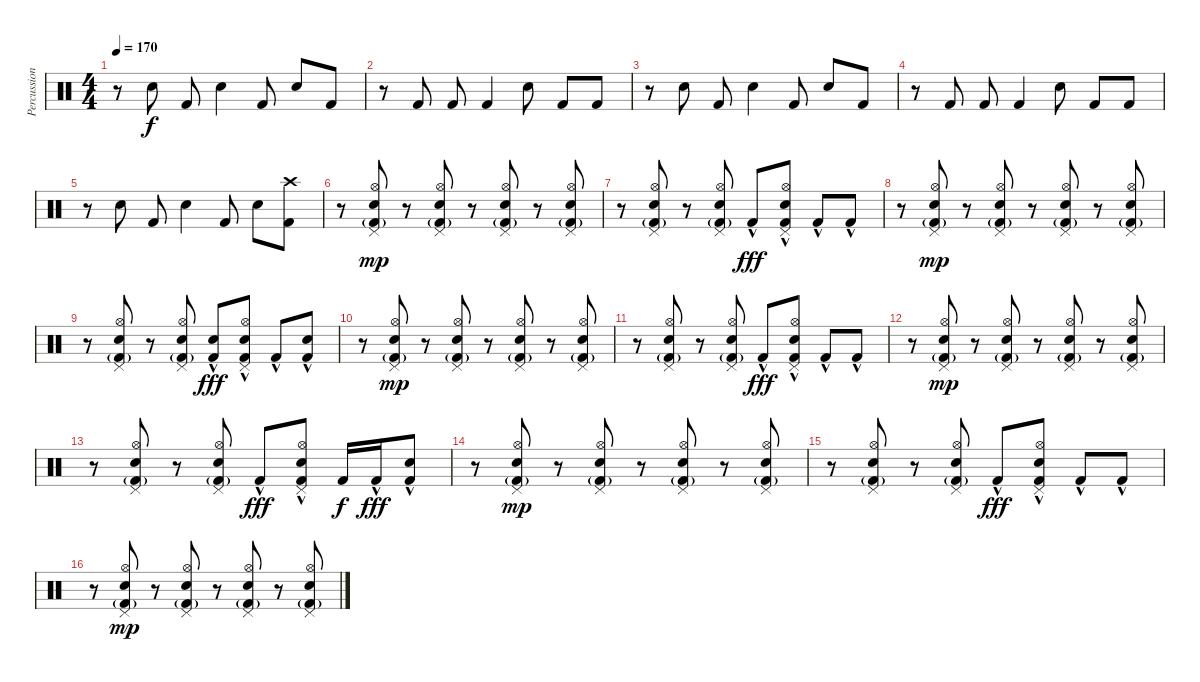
\track ("Percussions" "Percussion") {instrument percussion}
\staff {score}
\articulation defaults
\ts (4 4)
\tempo 170
\clef neutral
\ks c
r.8{dy f} "Electric Snare (hit)".8 "Kick (hit) 2".8 "Electric Snare (hit)".4 "Kick (hit) 2".8 "Electric Snare (hit)".8 "Kick (hit) 2".8 |
r.8 "Kick (hit) 2".8 "Kick (hit) 2".8 "Kick (hit) 2".4 "Electric Snare (hit)".8 "Kick (hit) 2".8 "Kick (hit) 2".8 |
r.8 "Electric Snare (hit)".8 "Kick (hit) 2".8 "Electric Snare (hit)".4 "Kick (hit) 2".8 "Electric Snare (hit)".8 "Kick (hit) 2".8 |
r.8 "Kick (hit) 2".8 "Kick (hit) 2".8 "Kick (hit) 2".4 "Electric Snare (hit)".8 "Kick (hit) 2".8 "Kick (hit) 2".8 |
r.8 "Electric Snare (hit)".8 "Kick (hit) 2".8 "Electric Snare (hit)".4 "Kick (hit) 2".8 "Electric Snare (hit)".8 ("Crash high (hit)" "Kick (hit) 2").8{volume 8} |
r.8 ("Hi-Hat (open)" "Electric Snare (hit)" "Pedal Hi-Hat (hit)" "Kick (hit) 2"{g}).8{dy mp} r.8 ("Hi-Hat (open)" "Electric Snare (hit)" "Pedal Hi-Hat (hit)" "Kick (hit) 2"{g}).8 r.8 ("Hi-Hat (open)" "Electric Snare (hit)" "Pedal Hi-Hat (hit)" "Kick (hit) 2"{g}).8 r.8 ("Hi-Hat (open)" "Electric Snare (hit)" "Pedal Hi-Hat (hit)" "Kick (hit) 2"{g}).8 |
r.8 ("Hi-Hat (open)" "Electric Snare (hit)" "Pedal Hi-Hat (hit)" "Kick (hit) 2"{g}).8 r.8 ("Hi-Hat (open)" "Electric Snare (hit)" "Pedal Hi-Hat (hit)" "Kick (hit) 2"{g}).8 "Kick (hit) 2"{hac}.8{dy fff} ("Hi-Hat (open)" "Electric Snare (hit)" "Pedal Hi-Hat (hit)" "Kick (hit) 2"{hac}).8 "Kick (hit) 2"{hac}.8 "Kick (hit) 2"{hac}.8 |
r.8 ("Hi-Hat (open)" "Electric Snare (hit)" "Pedal Hi-Hat (hit)" "Kick (hit) 2"{g}).8{dy mp} r.8 ("Hi-Hat (open)" "Electric Snare (hit)" "Pedal Hi-Hat (hit)" "Kick (hit) 2"{g}).8 r.8 ("Hi-Hat (open)" "Electric Snare (hit)" "Pedal Hi-Hat (hit)" "Kick (hit) 2"{g}).8 r.8 ("Hi-Hat (open)" "Electric Snare (hit)" "Pedal Hi-Hat (hit)" "Kick (hit) 2"{g}).8 |
r.8 ("Hi-Hat (open)" "Electric Snare (hit)" "Pedal Hi-Hat (hit)" "Kick (hit) 2"{g}).8 r.8 ("Hi-Hat (open)" "Electric Snare (hit)" "Pedal Hi-Hat (hit)" "Kick (hit) 2"{g}).8 ("Electric Snare (hit)" "Kick (hit) 2"{hac}).8{dy fff} ("Hi-Hat (open)" "Electric Snare (hit)"{hac} "Pedal Hi-Hat (hit)" "Kick (hit) 2"{hac}).8 "Kick (hit) 2"{hac}.8 ("Electric Snare (hit)"{hac} "Kick (hit) 2"{hac}).8 |
r.8 ("Hi-Hat (open)" "Electric Snare (hit)" "Pedal Hi-Hat (hit)" "Kick (hit) 2"{g}).8{dy mp} r.8 ("Hi-Hat (open)" "Electric Snare (hit)" "Pedal Hi-Hat (hit)" "Kick (hit) 2"{g}).8 r.8 ("Hi-Hat (open)" "Electric Snare (hit)" "Pedal Hi-Hat (hit)" "Kick (hit) 2"{g}).8 r.8 ("Hi-Hat (open)" "Electric Snare (hit)" "Pedal Hi-Hat (hit)" "Kick (hit) 2"{g}).8 |
r.8 ("Hi-Hat (open)" "Electric Snare (hit)" "Pedal Hi-Hat (hit)" "Kick (hit) 2"{g}).8 r.8 ("Hi-Hat (open)" "Electric Snare (hit)" "Pedal Hi-Hat (hit)" "Kick (hit) 2"{g}).8 "Kick (hit) 2"{hac}.8{dy fff} ("Hi-Hat (open)" "Electric Snare (hit)" "Pedal Hi-Hat (hit)" "Kick (hit) 2"{hac}).8 "Kick (hit) 2"{hac}.8 "Kick (hit) 2"{hac}.8 |
r.8 ("Hi-Hat (open)" "Electric Snare (hit)" "Pedal Hi-Hat (hit)" "Kick (hit) 2"{g}).8{dy mp} r.8 ("Hi-Hat (open)" "Electric Snare (hit)" "Pedal Hi-Hat (hit)" "Kick (hit) 2"{g}).8 r.8 ("Hi-Hat (open)" "Electric Snare (hit)" "Pedal Hi-Hat (hit)" "Kick (hit) 2"{g}).8 r.8 ("Hi-Hat (open)" "Electric Snare (hit)" "Pedal Hi-Hat (hit)" "Kick (hit) 2"{g}).8 |
r.8 ("Hi-Hat (open)" "Electric Snare (hit)" "Pedal Hi-Hat (hit)" "Kick (hit) 2"{g}).8 r.8 ("Hi-Hat (open)" "Electric Snare (hit)" "Pedal Hi-Hat (hit)" "Kick (hit) 2"{g}).8 "Kick (hit) 2"{hac}.8{dy fff} ("Hi-Hat (open)" "Electric Snare (hit)"{hac} "Pedal Hi-Hat (hit)" "Kick (hit) 2"{hac}).8 "Kick (hit) 2".16{dy f} "Kick (hit) 2"{hac}.16{dy fff} ("Electric Snare (hit)"{hac} "Kick (hit) 2"{hac}).8 |
r.8 ("Hi-Hat (open)" "Electric Snare (hit)" "Pedal Hi-Hat (hit)" "Kick (hit) 2"{g}).8{dy mp} r.8 ("Hi-Hat (open)" "Electric Snare (hit)" "Pedal Hi-Hat (hit)" "Kick (hit) 2"{g}).8 r.8 ("Hi-Hat (open)" "Electric Snare (hit)" "Pedal Hi-Hat (hit)" "Kick (hit) 2"{g}).8 r.8 ("Hi-Hat (open)" "Electric Snare (hit)" "Pedal Hi-Hat (hit)" "Kick (hit) 2"{g}).8 |
r.8 ("Hi-Hat (open)" "Electric Snare (hit)" "Pedal Hi-Hat (hit)" "Kick (hit) 2"{g}).8 r.8 ("Hi-Hat (open)" "Electric Snare (hit)" "Pedal Hi-Hat (hit)" "Kick (hit) 2"{g}).8 "Kick (hit) 2"{hac}.8{dy fff} ("Hi-Hat (open)" "Electric Snare (hit)" "Pedal Hi-Hat (hit)" "Kick (hit) 2"{hac}).8 "Kick (hit) 2"{hac}.8 "Kick (hit) 2"{hac}.8 |
r.8 ("Hi-Hat (open)" "Electric Snare (hit)" "Pedal Hi-Hat (hit)" "Kick (hit) 2"{g}).8{dy mp} r.8 ("Hi-Hat (open)" "Electric Snare (hit)" "Pedal Hi-Hat (hit)" "Kick (hit) 2"{g}).8 r.8 ("Hi-Hat (open)" "Electric Snare (hit)" "Pedal Hi-Hat (hit)" "Kick (hit) 2"{g}).8 r.8 ("Hi-Hat (open)" "Electric Snare (hit)" "Pedal Hi-Hat (hit)" "Kick (hit) 2"{g}).8
